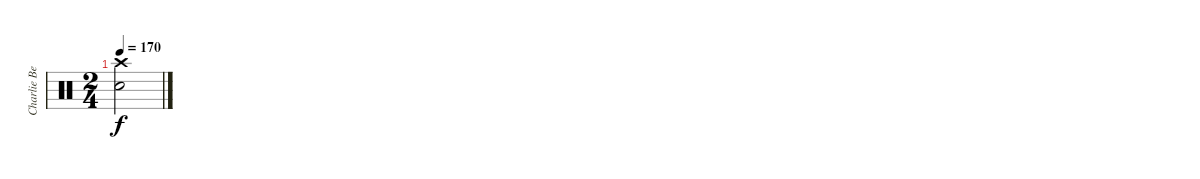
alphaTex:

\track ("Charlie Benante" "Charlie Be") {instrument percussion}
\staff {score}
\articulation defaults
\ts (2 4)
\tempo 170
\clef neutral
\ks c
("Crash high (hit)" "Electric Snare (hit)").2{dy f}
